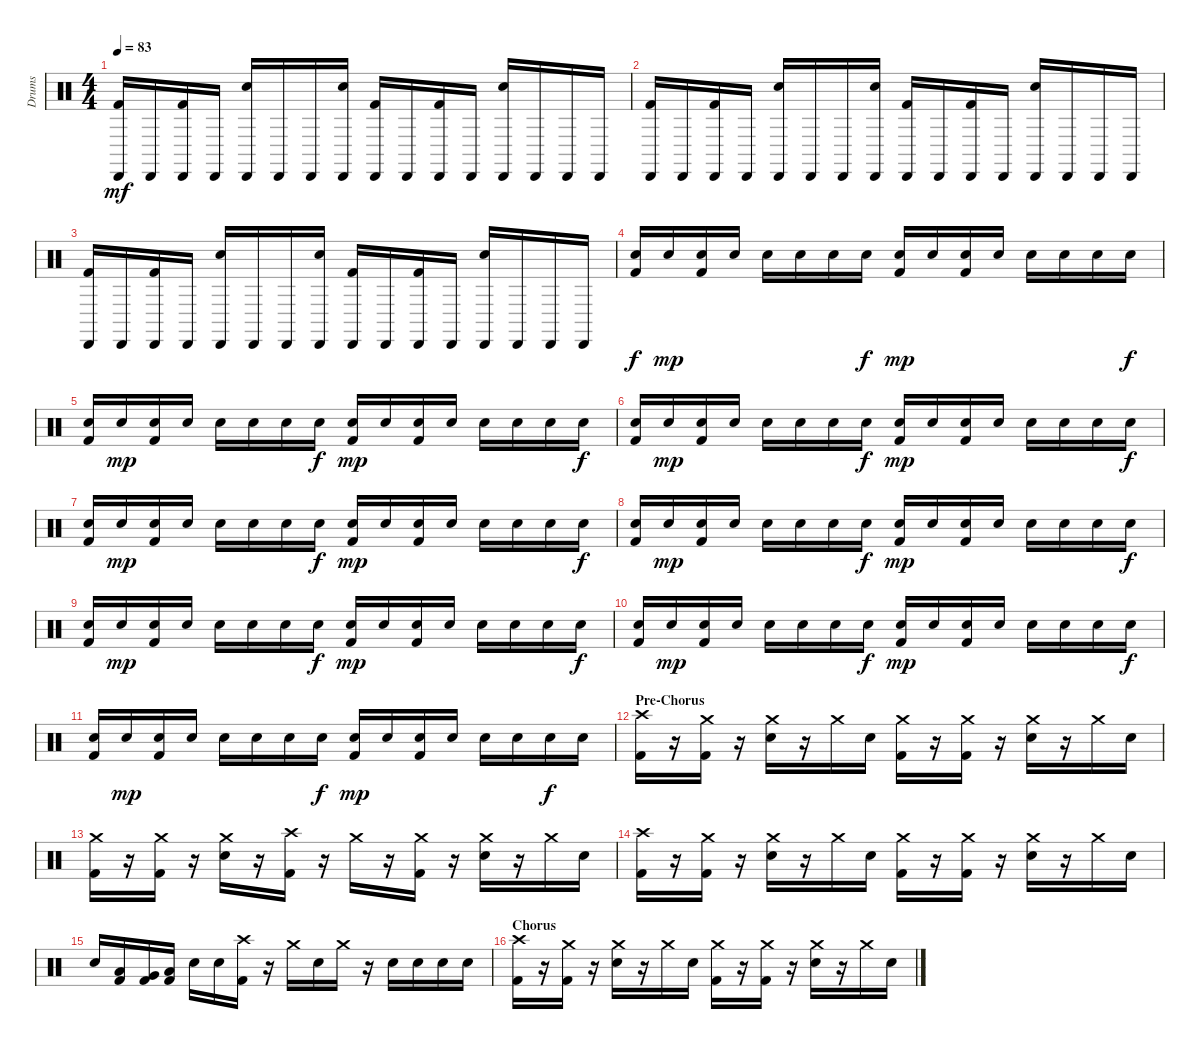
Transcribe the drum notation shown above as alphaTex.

\track ("Drums" "Drums") {instrument percussion}
\staff {score}
\articulation defaults
\ts (4 4)
\tempo 83
\clef neutral
\ks c
("Cabasa (hit)" "Kick (hit) 2").16{dy mf} "Cabasa (hit)".16 ("Cabasa (hit)" "Kick (hit) 2").16 "Cabasa (hit)".16 ("Cabasa (hit)" "Electric Snare (hit)").16 "Cabasa (hit)".16 "Cabasa (hit)".16 ("Cabasa (hit)" "Electric Snare (hit)").16 ("Cabasa (hit)" "Kick (hit) 2").16 "Cabasa (hit)".16 ("Cabasa (hit)" "Kick (hit) 2").16 "Cabasa (hit)".16 ("Cabasa (hit)" "Electric Snare (hit)").16 "Cabasa (hit)".16 "Cabasa (hit)".16 "Cabasa (hit)".16 |
("Cabasa (hit)" "Kick (hit) 2").16 "Cabasa (hit)".16 ("Cabasa (hit)" "Kick (hit) 2").16 "Cabasa (hit)".16 ("Cabasa (hit)" "Electric Snare (hit)").16 "Cabasa (hit)".16 "Cabasa (hit)".16 ("Cabasa (hit)" "Electric Snare (hit)").16 ("Cabasa (hit)" "Kick (hit) 2").16 "Cabasa (hit)".16 ("Cabasa (hit)" "Kick (hit) 2").16 "Cabasa (hit)".16 ("Cabasa (hit)" "Electric Snare (hit)").16 "Cabasa (hit)".16 "Cabasa (hit)".16 "Cabasa (hit)".16 |
("Cabasa (hit)" "Kick (hit) 2").16 "Cabasa (hit)".16 ("Cabasa (hit)" "Kick (hit) 2").16 "Cabasa (hit)".16 ("Cabasa (hit)" "Electric Snare (hit)").16 "Cabasa (hit)".16 "Cabasa (hit)".16 ("Cabasa (hit)" "Electric Snare (hit)").16 ("Cabasa (hit)" "Kick (hit) 2").16 "Cabasa (hit)".16 ("Cabasa (hit)" "Kick (hit) 2").16 "Cabasa (hit)".16 ("Cabasa (hit)" "Electric Snare (hit)").16 "Cabasa (hit)".16 "Cabasa (hit)".16 "Cabasa (hit)".16 |
("Electric Snare (hit)" "Kick (hit) 2").16{dy f} "Electric Snare (hit)".16{dy mp} ("Electric Snare (hit)" "Kick (hit) 2").16 "Electric Snare (hit)".16 "Electric Snare (hit)".16 "Electric Snare (hit)".16 "Electric Snare (hit)".16 "Electric Snare (hit)".16{dy f} ("Electric Snare (hit)" "Kick (hit) 2").16{dy mp} "Electric Snare (hit)".16 ("Electric Snare (hit)" "Kick (hit) 2").16 "Electric Snare (hit)".16 "Electric Snare (hit)".16 "Electric Snare (hit)".16 "Electric Snare (hit)".16 "Electric Snare (hit)".16{dy f} |
("Electric Snare (hit)" "Kick (hit) 2").16 "Electric Snare (hit)".16{dy mp} ("Electric Snare (hit)" "Kick (hit) 2").16 "Electric Snare (hit)".16 "Electric Snare (hit)".16 "Electric Snare (hit)".16 "Electric Snare (hit)".16 "Electric Snare (hit)".16{dy f} ("Electric Snare (hit)" "Kick (hit) 2").16{dy mp} "Electric Snare (hit)".16 ("Electric Snare (hit)" "Kick (hit) 2").16 "Electric Snare (hit)".16 "Electric Snare (hit)".16 "Electric Snare (hit)".16 "Electric Snare (hit)".16 "Electric Snare (hit)".16{dy f} |
("Electric Snare (hit)" "Kick (hit) 2").16 "Electric Snare (hit)".16{dy mp} ("Electric Snare (hit)" "Kick (hit) 2").16 "Electric Snare (hit)".16 "Electric Snare (hit)".16 "Electric Snare (hit)".16 "Electric Snare (hit)".16 "Electric Snare (hit)".16{dy f} ("Electric Snare (hit)" "Kick (hit) 2").16{dy mp} "Electric Snare (hit)".16 ("Electric Snare (hit)" "Kick (hit) 2").16 "Electric Snare (hit)".16 "Electric Snare (hit)".16 "Electric Snare (hit)".16 "Electric Snare (hit)".16 "Electric Snare (hit)".16{dy f} |
("Electric Snare (hit)" "Kick (hit) 2").16 "Electric Snare (hit)".16{dy mp} ("Electric Snare (hit)" "Kick (hit) 2").16 "Electric Snare (hit)".16 "Electric Snare (hit)".16 "Electric Snare (hit)".16 "Electric Snare (hit)".16 "Electric Snare (hit)".16{dy f} ("Electric Snare (hit)" "Kick (hit) 2").16{dy mp} "Electric Snare (hit)".16 ("Electric Snare (hit)" "Kick (hit) 2").16 "Electric Snare (hit)".16 "Electric Snare (hit)".16 "Electric Snare (hit)".16 "Electric Snare (hit)".16 "Electric Snare (hit)".16{dy f} |
("Electric Snare (hit)" "Kick (hit) 2").16 "Electric Snare (hit)".16{dy mp} ("Electric Snare (hit)" "Kick (hit) 2").16 "Electric Snare (hit)".16 "Electric Snare (hit)".16 "Electric Snare (hit)".16 "Electric Snare (hit)".16 "Electric Snare (hit)".16{dy f} ("Electric Snare (hit)" "Kick (hit) 2").16{dy mp} "Electric Snare (hit)".16 ("Electric Snare (hit)" "Kick (hit) 2").16 "Electric Snare (hit)".16 "Electric Snare (hit)".16 "Electric Snare (hit)".16 "Electric Snare (hit)".16 "Electric Snare (hit)".16{dy f} |
("Electric Snare (hit)" "Kick (hit) 2").16 "Electric Snare (hit)".16{dy mp} ("Electric Snare (hit)" "Kick (hit) 2").16 "Electric Snare (hit)".16 "Electric Snare (hit)".16 "Electric Snare (hit)".16 "Electric Snare (hit)".16 "Electric Snare (hit)".16{dy f} ("Electric Snare (hit)" "Kick (hit) 2").16{dy mp} "Electric Snare (hit)".16 ("Electric Snare (hit)" "Kick (hit) 2").16 "Electric Snare (hit)".16 "Electric Snare (hit)".16 "Electric Snare (hit)".16 "Electric Snare (hit)".16 "Electric Snare (hit)".16{dy f} |
("Electric Snare (hit)" "Kick (hit) 2").16 "Electric Snare (hit)".16{dy mp} ("Electric Snare (hit)" "Kick (hit) 2").16 "Electric Snare (hit)".16 "Electric Snare (hit)".16 "Electric Snare (hit)".16 "Electric Snare (hit)".16 "Electric Snare (hit)".16{dy f} ("Electric Snare (hit)" "Kick (hit) 2").16{dy mp} "Electric Snare (hit)".16 ("Electric Snare (hit)" "Kick (hit) 2").16 "Electric Snare (hit)".16 "Electric Snare (hit)".16 "Electric Snare (hit)".16 "Electric Snare (hit)".16 "Electric Snare (hit)".16{dy f} |
("Electric Snare (hit)" "Kick (hit) 2").16 "Electric Snare (hit)".16{dy mp} ("Electric Snare (hit)" "Kick (hit) 2").16 "Electric Snare (hit)".16 "Electric Snare (hit)".16 "Electric Snare (hit)".16 "Electric Snare (hit)".16 "Electric Snare (hit)".16{dy f} ("Electric Snare (hit)" "Kick (hit) 2").16{dy mp} "Electric Snare (hit)".16 ("Electric Snare (hit)" "Kick (hit) 2").16 "Electric Snare (hit)".16 "Electric Snare (hit)".16 "Electric Snare (hit)".16 "Electric Snare (hit)".16{dy f} "Electric Snare (hit)".16 |
\section ("" "Pre-Chorus")
("Crash high (hit)" "Kick (hit) 2").16 r.16 ("Crash medium (hit)" "Kick (hit) 2").16 r.16 ("Crash medium (hit)" "Electric Snare (hit)").16 r.16 "Crash medium (hit)".16 "Electric Snare (hit)".16 ("Crash medium (hit)" "Kick (hit) 2").16 r.16 ("Crash medium (hit)" "Kick (hit) 2").16 r.16 ("Crash medium (hit)" "Electric Snare (hit)").16 r.16 "Crash medium (hit)".16 "Electric Snare (hit)".16 |
("Crash medium (hit)" "Kick (hit) 2").16 r.16 ("Crash medium (hit)" "Kick (hit) 2").16 r.16 ("Crash medium (hit)" "Electric Snare (hit)").16 r.16 ("Crash high (hit)" "Kick (hit) 2").16 r.16 "Crash medium (hit)".16 r.16 ("Crash medium (hit)" "Kick (hit) 2").16 r.16 ("Crash medium (hit)" "Electric Snare (hit)").16 r.16 "Crash medium (hit)".16 "Electric Snare (hit)".16 |
("Crash high (hit)" "Kick (hit) 2").16 r.16 ("Crash medium (hit)" "Kick (hit) 2").16 r.16 ("Crash medium (hit)" "Electric Snare (hit)").16 r.16 "Crash medium (hit)".16 "Electric Snare (hit)".16 ("Crash medium (hit)" "Kick (hit) 2").16 r.16 ("Crash medium (hit)" "Kick (hit) 2").16 r.16 ("Crash medium (hit)" "Electric Snare (hit)").16 r.16 "Crash medium (hit)".16 "Electric Snare (hit)".16 |
"Electric Snare (hit)".16 ("Low Tom (hit)" "Kick (hit) 2").16 ("Very Low Tom (hit)" "Kick (hit) 2").16 ("Low Floor Tom (hit)" "Kick (hit) 2").16 "Electric Snare (hit)".16 "Electric Snare (hit)".16 ("Crash high (hit)" "Kick (hit) 2").16 r.16 "Crash medium (hit)".16 "Electric Snare (hit)".16 "Crash medium (hit)".16 r.16 "Electric Snare (hit)".16 "Electric Snare (hit)".16 "Electric Snare (hit)".16 "Electric Snare (hit)".16 |
\section ("" "Chorus")
("Crash high (hit)" "Kick (hit) 2").16 r.16 ("Crash medium (hit)" "Kick (hit) 2").16 r.16 ("Crash medium (hit)" "Electric Snare (hit)").16 r.16 "Crash medium (hit)".16 "Electric Snare (hit)".16 ("Crash medium (hit)" "Kick (hit) 2").16 r.16 ("Crash medium (hit)" "Kick (hit) 2").16 r.16 ("Crash medium (hit)" "Electric Snare (hit)").16 r.16 "Crash medium (hit)".16 "Electric Snare (hit)".16
